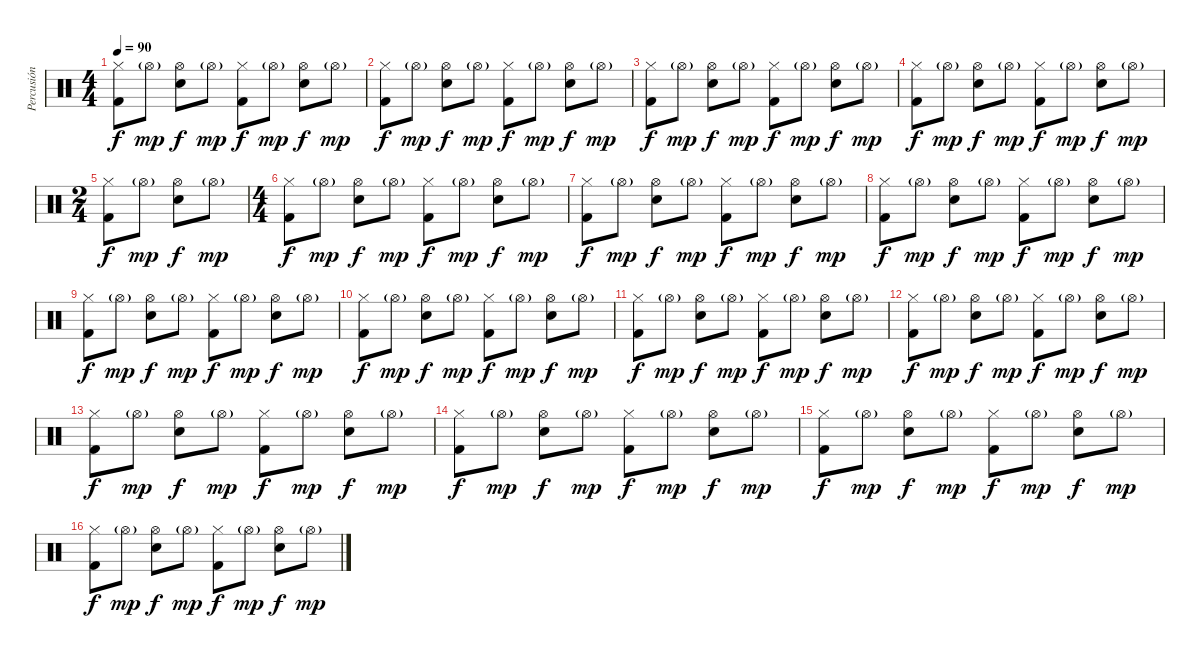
\track ("Percusión" "Percusión") {instrument percussion}
\staff {score}
\articulation defaults
\ts (4 4)
\tempo 90
\clef neutral
\ks c
("Hi-Hat (closed)" "Kick (hit) 2").8{dy f} "Hi-Hat (open)"{g}.8{dy mp} ("Hi-Hat (open)" "Snare (hit) 2").8{dy f} "Hi-Hat (open)"{g}.8{dy mp} ("Hi-Hat (closed)" "Kick (hit) 2").8{dy f} "Hi-Hat (open)"{g}.8{dy mp} ("Hi-Hat (open)" "Snare (hit) 2").8{dy f} "Hi-Hat (open)"{g}.8{dy mp} |
("Hi-Hat (closed)" "Kick (hit) 2").8{dy f} "Hi-Hat (open)"{g}.8{dy mp} ("Hi-Hat (open)" "Snare (hit) 2").8{dy f} "Hi-Hat (open)"{g}.8{dy mp} ("Hi-Hat (closed)" "Kick (hit) 2").8{dy f} "Hi-Hat (open)"{g}.8{dy mp} ("Hi-Hat (open)" "Snare (hit) 2").8{dy f} "Hi-Hat (open)"{g}.8{dy mp} |
("Hi-Hat (closed)" "Kick (hit) 2").8{dy f} "Hi-Hat (open)"{g}.8{dy mp} ("Hi-Hat (open)" "Snare (hit) 2").8{dy f} "Hi-Hat (open)"{g}.8{dy mp} ("Hi-Hat (closed)" "Kick (hit) 2").8{dy f} "Hi-Hat (open)"{g}.8{dy mp} ("Hi-Hat (open)" "Snare (hit) 2").8{dy f} "Hi-Hat (open)"{g}.8{dy mp} |
("Hi-Hat (closed)" "Kick (hit) 2").8{dy f} "Hi-Hat (open)"{g}.8{dy mp} ("Hi-Hat (open)" "Snare (hit) 2").8{dy f} "Hi-Hat (open)"{g}.8{dy mp} ("Hi-Hat (closed)" "Kick (hit) 2").8{dy f} "Hi-Hat (open)"{g}.8{dy mp} ("Hi-Hat (open)" "Snare (hit) 2").8{dy f} "Hi-Hat (open)"{g}.8{dy mp} |
\ts (2 4)
("Hi-Hat (closed)" "Kick (hit) 2").8{dy f} "Hi-Hat (open)"{g}.8{dy mp} ("Hi-Hat (open)" "Snare (hit) 2").8{dy f} "Hi-Hat (open)"{g}.8{dy mp} |
\ts (4 4)
("Hi-Hat (closed)" "Kick (hit) 2").8{dy f} "Hi-Hat (open)"{g}.8{dy mp} ("Hi-Hat (open)" "Snare (hit) 2").8{dy f} "Hi-Hat (open)"{g}.8{dy mp} ("Hi-Hat (closed)" "Kick (hit) 2").8{dy f} "Hi-Hat (open)"{g}.8{dy mp} ("Hi-Hat (open)" "Snare (hit) 2").8{dy f} "Hi-Hat (open)"{g}.8{dy mp} |
("Hi-Hat (closed)" "Kick (hit) 2").8{dy f} "Hi-Hat (open)"{g}.8{dy mp} ("Hi-Hat (open)" "Snare (hit) 2").8{dy f} "Hi-Hat (open)"{g}.8{dy mp} ("Hi-Hat (closed)" "Kick (hit) 2").8{dy f} "Hi-Hat (open)"{g}.8{dy mp} ("Hi-Hat (open)" "Snare (hit) 2").8{dy f} "Hi-Hat (open)"{g}.8{dy mp} |
("Hi-Hat (closed)" "Kick (hit) 2").8{dy f} "Hi-Hat (open)"{g}.8{dy mp} ("Hi-Hat (open)" "Snare (hit) 2").8{dy f} "Hi-Hat (open)"{g}.8{dy mp} ("Hi-Hat (closed)" "Kick (hit) 2").8{dy f} "Hi-Hat (open)"{g}.8{dy mp} ("Hi-Hat (open)" "Snare (hit) 2").8{dy f} "Hi-Hat (open)"{g}.8{dy mp} |
("Hi-Hat (closed)" "Kick (hit) 2").8{dy f} "Hi-Hat (open)"{g}.8{dy mp} ("Hi-Hat (open)" "Snare (hit) 2").8{dy f} "Hi-Hat (open)"{g}.8{dy mp} ("Hi-Hat (closed)" "Kick (hit) 2").8{dy f} "Hi-Hat (open)"{g}.8{dy mp} ("Hi-Hat (open)" "Snare (hit) 2").8{dy f} "Hi-Hat (open)"{g}.8{dy mp} |
("Hi-Hat (closed)" "Kick (hit) 2").8{dy f} "Hi-Hat (open)"{g}.8{dy mp} ("Hi-Hat (open)" "Snare (hit) 2").8{dy f} "Hi-Hat (open)"{g}.8{dy mp} ("Hi-Hat (closed)" "Kick (hit) 2").8{dy f} "Hi-Hat (open)"{g}.8{dy mp} ("Hi-Hat (open)" "Snare (hit) 2").8{dy f} "Hi-Hat (open)"{g}.8{dy mp} |
("Hi-Hat (closed)" "Kick (hit) 2").8{dy f} "Hi-Hat (open)"{g}.8{dy mp} ("Hi-Hat (open)" "Snare (hit) 2").8{dy f} "Hi-Hat (open)"{g}.8{dy mp} ("Hi-Hat (closed)" "Kick (hit) 2").8{dy f} "Hi-Hat (open)"{g}.8{dy mp} ("Hi-Hat (open)" "Snare (hit) 2").8{dy f} "Hi-Hat (open)"{g}.8{dy mp} |
("Hi-Hat (closed)" "Kick (hit) 2").8{dy f} "Hi-Hat (open)"{g}.8{dy mp} ("Hi-Hat (open)" "Snare (hit) 2").8{dy f} "Hi-Hat (open)"{g}.8{dy mp} ("Hi-Hat (closed)" "Kick (hit) 2").8{dy f} "Hi-Hat (open)"{g}.8{dy mp} ("Hi-Hat (open)" "Snare (hit) 2").8{dy f} "Hi-Hat (open)"{g}.8{dy mp} |
("Hi-Hat (closed)" "Kick (hit) 2").8{dy f} "Hi-Hat (open)"{g}.8{dy mp} ("Hi-Hat (open)" "Snare (hit) 2").8{dy f} "Hi-Hat (open)"{g}.8{dy mp} ("Hi-Hat (closed)" "Kick (hit) 2").8{dy f} "Hi-Hat (open)"{g}.8{dy mp} ("Hi-Hat (open)" "Snare (hit) 2").8{dy f} "Hi-Hat (open)"{g}.8{dy mp} |
("Hi-Hat (closed)" "Kick (hit) 2").8{dy f} "Hi-Hat (open)"{g}.8{dy mp} ("Hi-Hat (open)" "Snare (hit) 2").8{dy f} "Hi-Hat (open)"{g}.8{dy mp} ("Hi-Hat (closed)" "Kick (hit) 2").8{dy f} "Hi-Hat (open)"{g}.8{dy mp} ("Hi-Hat (open)" "Snare (hit) 2").8{dy f} "Hi-Hat (open)"{g}.8{dy mp} |
("Hi-Hat (closed)" "Kick (hit) 2").8{dy f} "Hi-Hat (open)"{g}.8{dy mp} ("Hi-Hat (open)" "Snare (hit) 2").8{dy f} "Hi-Hat (open)"{g}.8{dy mp} ("Hi-Hat (closed)" "Kick (hit) 2").8{dy f} "Hi-Hat (open)"{g}.8{dy mp} ("Hi-Hat (open)" "Snare (hit) 2").8{dy f} "Hi-Hat (open)"{g}.8{dy mp} |
("Hi-Hat (closed)" "Kick (hit) 2").8{dy f} "Hi-Hat (open)"{g}.8{dy mp} ("Hi-Hat (open)" "Snare (hit) 2").8{dy f} "Hi-Hat (open)"{g}.8{dy mp} ("Hi-Hat (closed)" "Kick (hit) 2").8{dy f} "Hi-Hat (open)"{g}.8{dy mp} ("Hi-Hat (open)" "Snare (hit) 2").8{dy f} "Hi-Hat (open)"{g}.8{dy mp}
